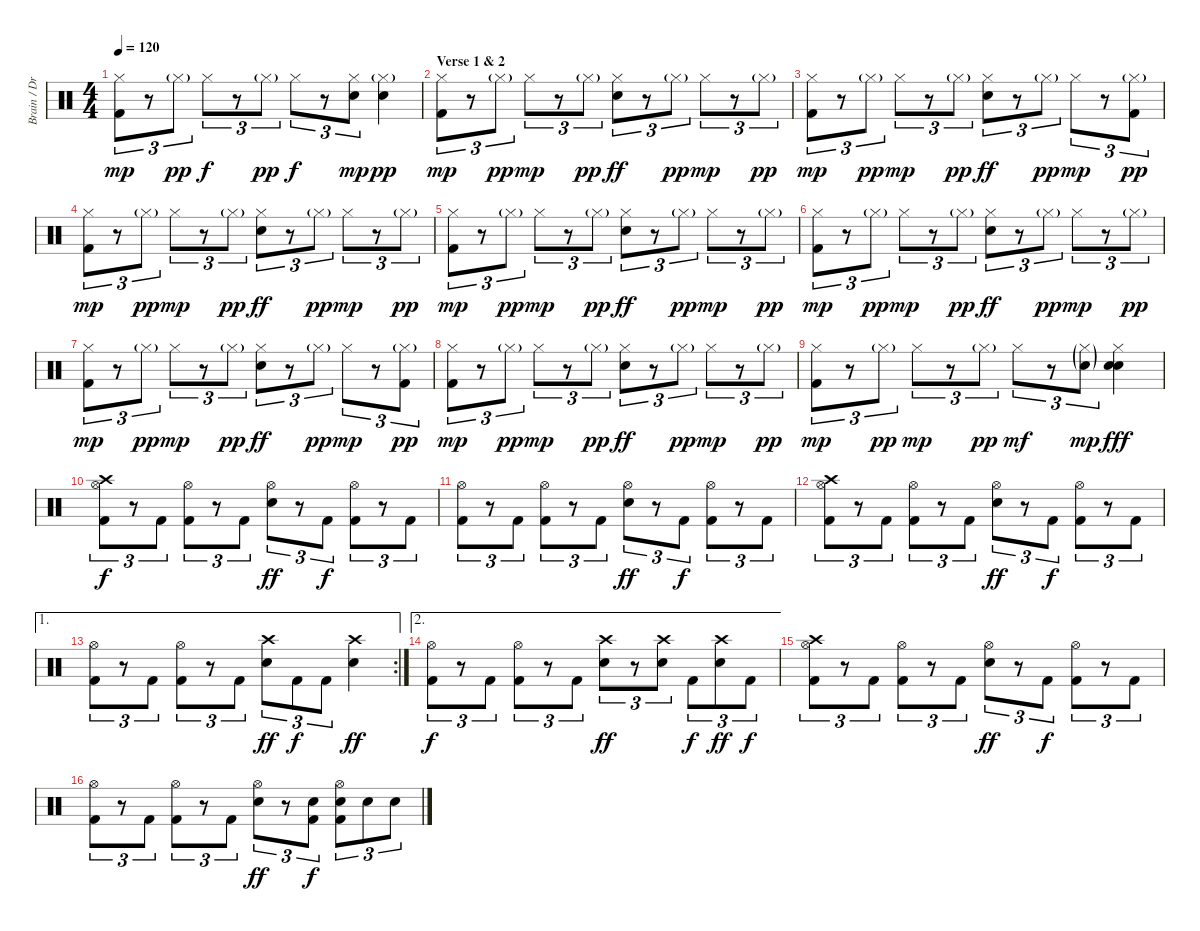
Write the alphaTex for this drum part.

\track ("Brain / Drums" "Brain / Dr") {instrument percussion}
\staff {score}
\articulation defaults
\ts (4 4)
\tempo 120
\clef neutral
\ks c
("Hi-Hat (closed)" "Kick (hit) 2").8{tu (3 2) dy mp} r.8{tu (3 2)} "Hi-Hat (closed)"{g}.8{tu (3 2) dy pp} "Hi-Hat (closed)".8{tu (3 2) dy f} r.8{tu (3 2)} "Hi-Hat (closed)"{g}.8{tu (3 2) dy pp} "Hi-Hat (closed)".8{tu (3 2) dy f} r.8{tu (3 2)} ("Hi-Hat (closed)" "Electric Snare (hit)").8{tu (3 2) dy mp} ("Hi-Hat (closed)"{g} "Electric Snare (hit)").4{dy pp} |
\section ("" "Verse 1 & 2")
("Hi-Hat (closed)" "Kick (hit) 2").8{tu (3 2) dy mp} r.8{tu (3 2)} "Hi-Hat (closed)"{g}.8{tu (3 2) dy pp} "Hi-Hat (closed)".8{tu (3 2) dy mp} r.8{tu (3 2)} "Hi-Hat (closed)"{g}.8{tu (3 2) dy pp} ("Hi-Hat (closed)" "Electric Snare (hit)").8{tu (3 2) dy ff} r.8{tu (3 2)} "Hi-Hat (closed)"{g}.8{tu (3 2) dy pp} "Hi-Hat (closed)".8{tu (3 2) dy mp} r.8{tu (3 2)} "Hi-Hat (closed)"{g}.8{tu (3 2) dy pp} |
("Hi-Hat (closed)" "Kick (hit) 2").8{tu (3 2) dy mp} r.8{tu (3 2)} "Hi-Hat (closed)"{g}.8{tu (3 2) dy pp} "Hi-Hat (closed)".8{tu (3 2) dy mp} r.8{tu (3 2)} "Hi-Hat (closed)"{g}.8{tu (3 2) dy pp} ("Hi-Hat (closed)" "Electric Snare (hit)").8{tu (3 2) dy ff} r.8{tu (3 2)} "Hi-Hat (closed)"{g}.8{tu (3 2) dy pp} "Hi-Hat (closed)".8{tu (3 2) dy mp} r.8{tu (3 2)} ("Hi-Hat (closed)"{g} "Kick (hit) 2").8{tu (3 2) dy pp} |
("Hi-Hat (closed)" "Kick (hit) 2").8{tu (3 2) dy mp} r.8{tu (3 2)} "Hi-Hat (closed)"{g}.8{tu (3 2) dy pp} "Hi-Hat (closed)".8{tu (3 2) dy mp} r.8{tu (3 2)} "Hi-Hat (closed)"{g}.8{tu (3 2) dy pp} ("Hi-Hat (closed)" "Electric Snare (hit)").8{tu (3 2) dy ff} r.8{tu (3 2)} "Hi-Hat (closed)"{g}.8{tu (3 2) dy pp} "Hi-Hat (closed)".8{tu (3 2) dy mp} r.8{tu (3 2)} "Hi-Hat (closed)"{g}.8{tu (3 2) dy pp} |
("Hi-Hat (closed)" "Kick (hit) 2").8{tu (3 2) dy mp} r.8{tu (3 2)} "Hi-Hat (closed)"{g}.8{tu (3 2) dy pp} "Hi-Hat (closed)".8{tu (3 2) dy mp} r.8{tu (3 2)} "Hi-Hat (closed)"{g}.8{tu (3 2) dy pp} ("Hi-Hat (closed)" "Electric Snare (hit)").8{tu (3 2) dy ff} r.8{tu (3 2)} "Hi-Hat (closed)"{g}.8{tu (3 2) dy pp} "Hi-Hat (closed)".8{tu (3 2) dy mp} r.8{tu (3 2)} "Hi-Hat (closed)"{g}.8{tu (3 2) dy pp} |
("Hi-Hat (closed)" "Kick (hit) 2").8{tu (3 2) dy mp} r.8{tu (3 2)} "Hi-Hat (closed)"{g}.8{tu (3 2) dy pp} "Hi-Hat (closed)".8{tu (3 2) dy mp} r.8{tu (3 2)} "Hi-Hat (closed)"{g}.8{tu (3 2) dy pp} ("Hi-Hat (closed)" "Electric Snare (hit)").8{tu (3 2) dy ff} r.8{tu (3 2)} "Hi-Hat (closed)"{g}.8{tu (3 2) dy pp} "Hi-Hat (closed)".8{tu (3 2) dy mp} r.8{tu (3 2)} "Hi-Hat (closed)"{g}.8{tu (3 2) dy pp} |
("Hi-Hat (closed)" "Kick (hit) 2").8{tu (3 2) dy mp} r.8{tu (3 2)} "Hi-Hat (closed)"{g}.8{tu (3 2) dy pp} "Hi-Hat (closed)".8{tu (3 2) dy mp} r.8{tu (3 2)} "Hi-Hat (closed)"{g}.8{tu (3 2) dy pp} ("Hi-Hat (closed)" "Electric Snare (hit)").8{tu (3 2) dy ff} r.8{tu (3 2)} "Hi-Hat (closed)"{g}.8{tu (3 2) dy pp} "Hi-Hat (closed)".8{tu (3 2) dy mp} r.8{tu (3 2)} ("Hi-Hat (closed)"{g} "Kick (hit) 2").8{tu (3 2) dy pp} |
("Hi-Hat (closed)" "Kick (hit) 2").8{tu (3 2) dy mp} r.8{tu (3 2)} "Hi-Hat (closed)"{g}.8{tu (3 2) dy pp} "Hi-Hat (closed)".8{tu (3 2) dy mp} r.8{tu (3 2)} "Hi-Hat (closed)"{g}.8{tu (3 2) dy pp} ("Hi-Hat (closed)" "Electric Snare (hit)").8{tu (3 2) dy ff} r.8{tu (3 2)} "Hi-Hat (closed)"{g}.8{tu (3 2) dy pp} "Hi-Hat (closed)".8{tu (3 2) dy mp} r.8{tu (3 2)} "Hi-Hat (closed)"{g}.8{tu (3 2) dy pp} |
("Hi-Hat (closed)" "Kick (hit) 2").8{tu (3 2) dy mp} r.8{tu (3 2)} "Hi-Hat (closed)"{g}.8{tu (3 2) dy pp} "Hi-Hat (closed)".8{tu (3 2) dy mp} r.8{tu (3 2)} "Hi-Hat (closed)"{g}.8{tu (3 2) dy pp} "Hi-Hat (closed)".8{tu (3 2) dy mf} r.8{tu (3 2)} ("Hi-Hat (closed)"{g} "Electric Snare (hit)"{g}).8{tu (3 2) dy mp} ("Hi-Hat (closed)" "Electric Snare (hit)" "Electric Snare (hit)").4{bd 30 dy fff} |
("Crash high (hit)" "Hi-Hat (open)" "Kick (hit) 2").8{tu (3 2) dy f} r.8{tu (3 2)} "Kick (hit) 2".8{tu (3 2)} ("Hi-Hat (open)" "Kick (hit) 2").8{tu (3 2)} r.8{tu (3 2)} "Kick (hit) 2".8{tu (3 2)} ("Hi-Hat (open)" "Electric Snare (hit)").8{tu (3 2) dy ff} r.8{tu (3 2)} "Kick (hit) 2".8{tu (3 2) dy f} ("Hi-Hat (open)" "Kick (hit) 2").8{tu (3 2)} r.8{tu (3 2)} "Kick (hit) 2".8{tu (3 2)} |
("Hi-Hat (open)" "Kick (hit) 2").8{tu (3 2)} r.8{tu (3 2)} "Kick (hit) 2".8{tu (3 2)} ("Hi-Hat (open)" "Kick (hit) 2").8{tu (3 2)} r.8{tu (3 2)} "Kick (hit) 2".8{tu (3 2)} ("Hi-Hat (open)" "Electric Snare (hit)").8{tu (3 2) dy ff} r.8{tu (3 2)} "Kick (hit) 2".8{tu (3 2) dy f} ("Hi-Hat (open)" "Kick (hit) 2").8{tu (3 2)} r.8{tu (3 2)} "Kick (hit) 2".8{tu (3 2)} |
("Crash high (hit)" "Hi-Hat (open)" "Kick (hit) 2").8{tu (3 2)} r.8{tu (3 2)} "Kick (hit) 2".8{tu (3 2)} ("Hi-Hat (open)" "Kick (hit) 2").8{tu (3 2)} r.8{tu (3 2)} "Kick (hit) 2".8{tu (3 2)} ("Hi-Hat (open)" "Electric Snare (hit)").8{tu (3 2) dy ff} r.8{tu (3 2)} "Kick (hit) 2".8{tu (3 2) dy f} ("Hi-Hat (open)" "Kick (hit) 2").8{tu (3 2)} r.8{tu (3 2)} "Kick (hit) 2".8{tu (3 2)} |
\ae 1
\rc 2
("Hi-Hat (open)" "Kick (hit) 2").8{tu (3 2)} r.8{tu (3 2)} "Kick (hit) 2".8{tu (3 2)} ("Hi-Hat (open)" "Kick (hit) 2").8{tu (3 2)} r.8{tu (3 2)} "Kick (hit) 2".8{tu (3 2)} ("Crash high (hit)" "Electric Snare (hit)").8{tu (3 2) dy ff} "Kick (hit) 2".8{tu (3 2) dy f} "Kick (hit) 2".8{tu (3 2)} ("Crash high (hit)" "Electric Snare (hit)").4{dy ff} |
\ae 2
("Hi-Hat (open)" "Kick (hit) 2").8{tu (3 2) dy f} r.8{tu (3 2)} "Kick (hit) 2".8{tu (3 2)} ("Hi-Hat (open)" "Kick (hit) 2").8{tu (3 2)} r.8{tu (3 2)} "Kick (hit) 2".8{tu (3 2)} ("Crash high (hit)" "Electric Snare (hit)").8{tu (3 2) dy ff} r.8{tu (3 2)} ("Crash high (hit)" "Electric Snare (hit)").8{tu (3 2)} "Kick (hit) 2".8{tu (3 2) dy f} ("Crash high (hit)" "Electric Snare (hit)").8{tu (3 2) dy ff} "Kick (hit) 2".8{tu (3 2) dy f} |
("Crash high (hit)" "Hi-Hat (open)" "Kick (hit) 2").8{tu (3 2)} r.8{tu (3 2)} "Kick (hit) 2".8{tu (3 2)} ("Hi-Hat (open)" "Kick (hit) 2").8{tu (3 2)} r.8{tu (3 2)} "Kick (hit) 2".8{tu (3 2)} ("Hi-Hat (open)" "Electric Snare (hit)").8{tu (3 2) dy ff} r.8{tu (3 2)} "Kick (hit) 2".8{tu (3 2) dy f} ("Hi-Hat (open)" "Kick (hit) 2").8{tu (3 2)} r.8{tu (3 2)} "Kick (hit) 2".8{tu (3 2)} |
("Hi-Hat (open)" "Kick (hit) 2").8{tu (3 2)} r.8{tu (3 2)} "Kick (hit) 2".8{tu (3 2)} ("Hi-Hat (open)" "Kick (hit) 2").8{tu (3 2)} r.8{tu (3 2)} "Kick (hit) 2".8{tu (3 2)} ("Hi-Hat (open)" "Electric Snare (hit)").8{tu (3 2) dy ff} r.8{tu (3 2)} ("Electric Snare (hit)" "Kick (hit) 2").8{tu (3 2) dy f} ("Hi-Hat (open)" "Electric Snare (hit)" "Kick (hit) 2").8{tu (3 2)} "Electric Snare (hit)".8{tu (3 2)} "Electric Snare (hit)".8{tu (3 2)}
